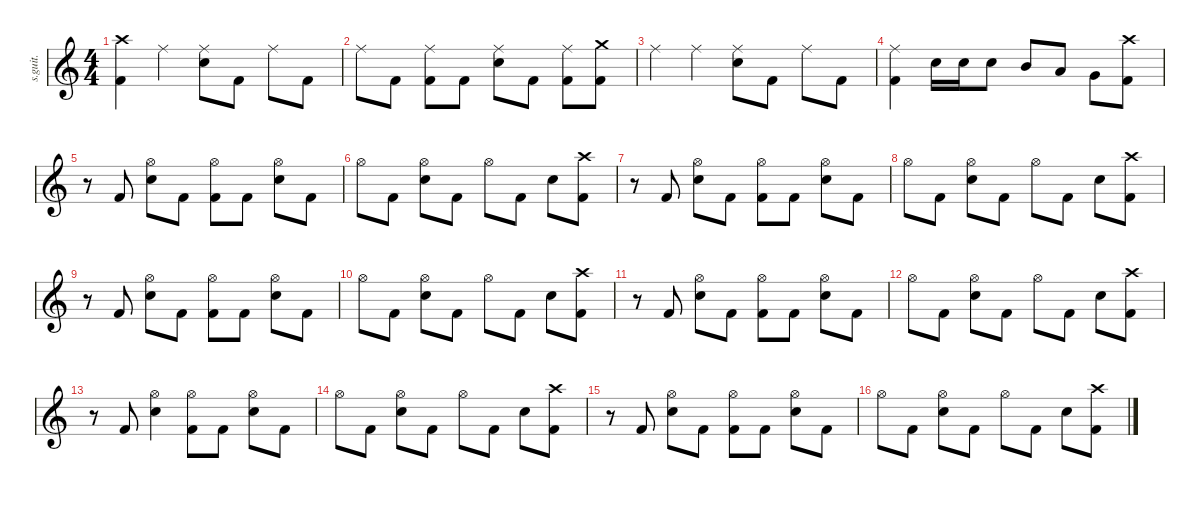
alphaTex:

\defaultSystemsLayout 4
\hideDynamics
\bracketExtendMode nobrackets
\track ("Nick Menza (Drums)" "s.guit.") {instrument percussion}
\staff {score}
\articulation defaults
\ts (4 4)
\tempo (196 hide)
\clef g2
\ks c
("Crash high (hit)" "Kick (hit) 2").4{lyrics (0 "") lyrics (1 "") lyrics (2 "") lyrics (3 "") lyrics (4 "") dy f} "Ride (middle)".4{lyrics (0 "") lyrics (1 "") lyrics (2 "") lyrics (3 "") lyrics (4 "")} ("Ride (middle)" "Snare (hit) 2").8{lyrics (0 "") lyrics (1 "") lyrics (2 "") lyrics (3 "") lyrics (4 "")} "Kick (hit) 2".8{lyrics (0 "") lyrics (1 "") lyrics (2 "") lyrics (3 "") lyrics (4 "") dy fff} "Ride (middle)".8{lyrics (0 "") lyrics (1 "") lyrics (2 "") lyrics (3 "") lyrics (4 "") dy f} "Kick (hit) 2".8{lyrics (0 "") lyrics (1 "") lyrics (2 "") lyrics (3 "") lyrics (4 "") dy fff} |
"Ride (middle)".8{lyrics (0 "") lyrics (1 "") lyrics (2 "") lyrics (3 "") lyrics (4 "") dy f} "Kick (hit) 2".8{lyrics (0 "") lyrics (1 "") lyrics (2 "") lyrics (3 "") lyrics (4 "") dy fff} ("Ride (middle)" "Kick (hit) 2").8{lyrics (0 "") lyrics (1 "") lyrics (2 "") lyrics (3 "") lyrics (4 "") dy f} "Kick (hit) 2".8{lyrics (0 "") lyrics (1 "") lyrics (2 "") lyrics (3 "") lyrics (4 "") dy fff} ("Ride (middle)" "Snare (hit) 2").8{lyrics (0 "") lyrics (1 "") lyrics (2 "") lyrics (3 "") lyrics (4 "") dy f} "Kick (hit) 2".8{lyrics (0 "") lyrics (1 "") lyrics (2 "") lyrics (3 "") lyrics (4 "") dy fff} ("Ride (middle)" "Kick (hit) 2").8{lyrics (0 "") lyrics (1 "") lyrics (2 "") lyrics (3 "") lyrics (4 "") dy f} ("Crash medium (hit)" "Kick (hit) 2").8{lyrics (0 "") lyrics (1 "") lyrics (2 "") lyrics (3 "") lyrics (4 "")} |
"Ride (middle)".4{lyrics (0 "") lyrics (1 "") lyrics (2 "") lyrics (3 "") lyrics (4 "")} "Ride (middle)".4{lyrics (0 "") lyrics (1 "") lyrics (2 "") lyrics (3 "") lyrics (4 "")} ("Ride (middle)" "Snare (hit) 2").8{lyrics (0 "") lyrics (1 "") lyrics (2 "") lyrics (3 "") lyrics (4 "")} "Kick (hit) 2".8{lyrics (0 "") lyrics (1 "") lyrics (2 "") lyrics (3 "") lyrics (4 "") dy fff} "Ride (middle)".8{lyrics (0 "") lyrics (1 "") lyrics (2 "") lyrics (3 "") lyrics (4 "") dy f} "Kick (hit) 2".8{lyrics (0 "") lyrics (1 "") lyrics (2 "") lyrics (3 "") lyrics (4 "") dy fff} |
("Ride (middle)" "Kick (hit) 2").4{lyrics (0 "") lyrics (1 "") lyrics (2 "") lyrics (3 "") lyrics (4 "") dy f} "Snare (hit) 2".16{lyrics (0 "") lyrics (1 "") lyrics (2 "") lyrics (3 "") lyrics (4 "")} "Snare (hit) 2".16{lyrics (0 "") lyrics (1 "") lyrics (2 "") lyrics (3 "") lyrics (4 "")} "Snare (hit) 2".8{lyrics (0 "") lyrics (1 "") lyrics (2 "") lyrics (3 "") lyrics (4 "")} "Mid Tom (hit)".8{lyrics (0 "") lyrics (1 "") lyrics (2 "") lyrics (3 "") lyrics (4 "") dy fff} "Low Tom (hit)".8{lyrics (0 "") lyrics (1 "") lyrics (2 "") lyrics (3 "") lyrics (4 "")} "Very Low Tom (hit)".8{lyrics (0 "") lyrics (1 "") lyrics (2 "") lyrics (3 "") lyrics (4 "") dy f} ("Crash high (hit)" "Kick (hit) 2").8{lyrics (0 "") lyrics (1 "") lyrics (2 "") lyrics (3 "") lyrics (4 "")} |
r.8 "Kick (hit) 2".8{lyrics (0 "") lyrics (1 "") lyrics (2 "") lyrics (3 "") lyrics (4 "") dy fff} ("Hi-Hat (open)" "Snare (hit) 2").8{lyrics (0 "") lyrics (1 "") lyrics (2 "") lyrics (3 "") lyrics (4 "") dy f} "Kick (hit) 2".8{lyrics (0 "") lyrics (1 "") lyrics (2 "") lyrics (3 "") lyrics (4 "") dy fff} ("Hi-Hat (open)" "Kick (hit) 2").8{lyrics (0 "") lyrics (1 "") lyrics (2 "") lyrics (3 "") lyrics (4 "") dy f} "Kick (hit) 2".8{lyrics (0 "") lyrics (1 "") lyrics (2 "") lyrics (3 "") lyrics (4 "") dy fff} ("Hi-Hat (open)" "Snare (hit) 2").8{lyrics (0 "") lyrics (1 "") lyrics (2 "") lyrics (3 "") lyrics (4 "") dy f} "Kick (hit) 2".8{lyrics (0 "") lyrics (1 "") lyrics (2 "") lyrics (3 "") lyrics (4 "") dy fff} |
"Hi-Hat (open)".8{lyrics (0 "") lyrics (1 "") lyrics (2 "") lyrics (3 "") lyrics (4 "") dy f} "Kick (hit) 2".8{lyrics (0 "") lyrics (1 "") lyrics (2 "") lyrics (3 "") lyrics (4 "") dy fff} ("Hi-Hat (open)" "Snare (hit) 2").8{lyrics (0 "") lyrics (1 "") lyrics (2 "") lyrics (3 "") lyrics (4 "") dy f} "Kick (hit) 2".8{lyrics (0 "") lyrics (1 "") lyrics (2 "") lyrics (3 "") lyrics (4 "") dy fff} "Hi-Hat (open)".8{lyrics (0 "") lyrics (1 "") lyrics (2 "") lyrics (3 "") lyrics (4 "") dy f} "Kick (hit) 2".8{lyrics (0 "") lyrics (1 "") lyrics (2 "") lyrics (3 "") lyrics (4 "") dy fff} "Snare (hit) 2".8{lyrics (0 "") lyrics (1 "") lyrics (2 "") lyrics (3 "") lyrics (4 "") dy f} ("Crash high (hit)" "Kick (hit) 2").8{lyrics (0 "") lyrics (1 "") lyrics (2 "") lyrics (3 "") lyrics (4 "")} |
r.8 "Kick (hit) 2".8{lyrics (0 "") lyrics (1 "") lyrics (2 "") lyrics (3 "") lyrics (4 "") dy fff} ("Hi-Hat (open)" "Snare (hit) 2").8{lyrics (0 "") lyrics (1 "") lyrics (2 "") lyrics (3 "") lyrics (4 "") dy f} "Kick (hit) 2".8{lyrics (0 "") lyrics (1 "") lyrics (2 "") lyrics (3 "") lyrics (4 "") dy fff} ("Hi-Hat (open)" "Kick (hit) 2").8{lyrics (0 "") lyrics (1 "") lyrics (2 "") lyrics (3 "") lyrics (4 "") dy f} "Kick (hit) 2".8{lyrics (0 "") lyrics (1 "") lyrics (2 "") lyrics (3 "") lyrics (4 "") dy fff} ("Hi-Hat (open)" "Snare (hit) 2").8{lyrics (0 "") lyrics (1 "") lyrics (2 "") lyrics (3 "") lyrics (4 "") dy f} "Kick (hit) 2".8{lyrics (0 "") lyrics (1 "") lyrics (2 "") lyrics (3 "") lyrics (4 "") dy fff} |
"Hi-Hat (open)".8{lyrics (0 "") lyrics (1 "") lyrics (2 "") lyrics (3 "") lyrics (4 "") dy f} "Kick (hit) 2".8{lyrics (0 "") lyrics (1 "") lyrics (2 "") lyrics (3 "") lyrics (4 "") dy fff} ("Hi-Hat (open)" "Snare (hit) 2").8{lyrics (0 "") lyrics (1 "") lyrics (2 "") lyrics (3 "") lyrics (4 "") dy f} "Kick (hit) 2".8{lyrics (0 "") lyrics (1 "") lyrics (2 "") lyrics (3 "") lyrics (4 "") dy fff} "Hi-Hat (open)".8{lyrics (0 "") lyrics (1 "") lyrics (2 "") lyrics (3 "") lyrics (4 "") dy f} "Kick (hit) 2".8{lyrics (0 "") lyrics (1 "") lyrics (2 "") lyrics (3 "") lyrics (4 "") dy fff} "Snare (hit) 2".8{lyrics (0 "") lyrics (1 "") lyrics (2 "") lyrics (3 "") lyrics (4 "") dy f} ("Crash high (hit)" "Kick (hit) 2").8{lyrics (0 "") lyrics (1 "") lyrics (2 "") lyrics (3 "") lyrics (4 "")} |
r.8 "Kick (hit) 2".8{lyrics (0 "") lyrics (1 "") lyrics (2 "") lyrics (3 "") lyrics (4 "") dy fff} ("Hi-Hat (open)" "Snare (hit) 2").8{lyrics (0 "") lyrics (1 "") lyrics (2 "") lyrics (3 "") lyrics (4 "") dy f} "Kick (hit) 2".8{lyrics (0 "") lyrics (1 "") lyrics (2 "") lyrics (3 "") lyrics (4 "") dy fff} ("Hi-Hat (open)" "Kick (hit) 2").8{lyrics (0 "") lyrics (1 "") lyrics (2 "") lyrics (3 "") lyrics (4 "") dy f} "Kick (hit) 2".8{lyrics (0 "") lyrics (1 "") lyrics (2 "") lyrics (3 "") lyrics (4 "") dy fff} ("Hi-Hat (open)" "Snare (hit) 2").8{lyrics (0 "") lyrics (1 "") lyrics (2 "") lyrics (3 "") lyrics (4 "") dy f} "Kick (hit) 2".8{lyrics (0 "") lyrics (1 "") lyrics (2 "") lyrics (3 "") lyrics (4 "") dy fff} |
"Hi-Hat (open)".8{lyrics (0 "") lyrics (1 "") lyrics (2 "") lyrics (3 "") lyrics (4 "") dy f} "Kick (hit) 2".8{lyrics (0 "") lyrics (1 "") lyrics (2 "") lyrics (3 "") lyrics (4 "") dy fff} ("Hi-Hat (open)" "Snare (hit) 2").8{lyrics (0 "") lyrics (1 "") lyrics (2 "") lyrics (3 "") lyrics (4 "") dy f} "Kick (hit) 2".8{lyrics (0 "") lyrics (1 "") lyrics (2 "") lyrics (3 "") lyrics (4 "") dy fff} "Hi-Hat (open)".8{lyrics (0 "") lyrics (1 "") lyrics (2 "") lyrics (3 "") lyrics (4 "") dy f} "Kick (hit) 2".8{lyrics (0 "") lyrics (1 "") lyrics (2 "") lyrics (3 "") lyrics (4 "") dy fff} "Snare (hit) 2".8{lyrics (0 "") lyrics (1 "") lyrics (2 "") lyrics (3 "") lyrics (4 "") dy f} ("Crash high (hit)" "Kick (hit) 2").8{lyrics (0 "") lyrics (1 "") lyrics (2 "") lyrics (3 "") lyrics (4 "")} |
r.8 "Kick (hit) 2".8{lyrics (0 "") lyrics (1 "") lyrics (2 "") lyrics (3 "") lyrics (4 "") dy fff} ("Hi-Hat (open)" "Snare (hit) 2").8{lyrics (0 "") lyrics (1 "") lyrics (2 "") lyrics (3 "") lyrics (4 "") dy f} "Kick (hit) 2".8{lyrics (0 "") lyrics (1 "") lyrics (2 "") lyrics (3 "") lyrics (4 "") dy fff} ("Hi-Hat (open)" "Kick (hit) 2").8{lyrics (0 "") lyrics (1 "") lyrics (2 "") lyrics (3 "") lyrics (4 "") dy f} "Kick (hit) 2".8{lyrics (0 "") lyrics (1 "") lyrics (2 "") lyrics (3 "") lyrics (4 "") dy fff} ("Hi-Hat (open)" "Snare (hit) 2").8{lyrics (0 "") lyrics (1 "") lyrics (2 "") lyrics (3 "") lyrics (4 "") dy f} "Kick (hit) 2".8{lyrics (0 "") lyrics (1 "") lyrics (2 "") lyrics (3 "") lyrics (4 "") dy fff} |
"Hi-Hat (open)".8{lyrics (0 "") lyrics (1 "") lyrics (2 "") lyrics (3 "") lyrics (4 "") dy f} "Kick (hit) 2".8{lyrics (0 "") lyrics (1 "") lyrics (2 "") lyrics (3 "") lyrics (4 "") dy fff} ("Hi-Hat (open)" "Snare (hit) 2").8{lyrics (0 "") lyrics (1 "") lyrics (2 "") lyrics (3 "") lyrics (4 "") dy f} "Kick (hit) 2".8{lyrics (0 "") lyrics (1 "") lyrics (2 "") lyrics (3 "") lyrics (4 "") dy fff} "Hi-Hat (open)".8{lyrics (0 "") lyrics (1 "") lyrics (2 "") lyrics (3 "") lyrics (4 "") dy f} "Kick (hit) 2".8{lyrics (0 "") lyrics (1 "") lyrics (2 "") lyrics (3 "") lyrics (4 "") dy fff} "Snare (hit) 2".8{lyrics (0 "") lyrics (1 "") lyrics (2 "") lyrics (3 "") lyrics (4 "") dy f} ("Crash high (hit)" "Kick (hit) 2").8{lyrics (0 "") lyrics (1 "") lyrics (2 "") lyrics (3 "") lyrics (4 "")} |
r.8 "Kick (hit) 2".8{lyrics (0 "") lyrics (1 "") lyrics (2 "") lyrics (3 "") lyrics (4 "") dy fff} ("Hi-Hat (open)" "Snare (hit) 2").4{lyrics (0 "") lyrics (1 "") lyrics (2 "") lyrics (3 "") lyrics (4 "") dy f} ("Hi-Hat (open)" "Kick (hit) 2").8{lyrics (0 "") lyrics (1 "") lyrics (2 "") lyrics (3 "") lyrics (4 "")} "Kick (hit) 2".8{lyrics (0 "") lyrics (1 "") lyrics (2 "") lyrics (3 "") lyrics (4 "") dy fff} ("Hi-Hat (open)" "Snare (hit) 2").8{lyrics (0 "") lyrics (1 "") lyrics (2 "") lyrics (3 "") lyrics (4 "") dy f} "Kick (hit) 2".8{lyrics (0 "") lyrics (1 "") lyrics (2 "") lyrics (3 "") lyrics (4 "") dy fff} |
"Hi-Hat (open)".8{lyrics (0 "") lyrics (1 "") lyrics (2 "") lyrics (3 "") lyrics (4 "") dy f} "Kick (hit) 2".8{lyrics (0 "") lyrics (1 "") lyrics (2 "") lyrics (3 "") lyrics (4 "") dy fff} ("Hi-Hat (open)" "Snare (hit) 2").8{lyrics (0 "") lyrics (1 "") lyrics (2 "") lyrics (3 "") lyrics (4 "") dy f} "Kick (hit) 2".8{lyrics (0 "") lyrics (1 "") lyrics (2 "") lyrics (3 "") lyrics (4 "") dy fff} "Hi-Hat (open)".8{lyrics (0 "") lyrics (1 "") lyrics (2 "") lyrics (3 "") lyrics (4 "") dy f} "Kick (hit) 2".8{lyrics (0 "") lyrics (1 "") lyrics (2 "") lyrics (3 "") lyrics (4 "") dy fff} "Snare (hit) 2".8{lyrics (0 "") lyrics (1 "") lyrics (2 "") lyrics (3 "") lyrics (4 "") dy f} ("Crash high (hit)" "Kick (hit) 2").8{lyrics (0 "") lyrics (1 "") lyrics (2 "") lyrics (3 "") lyrics (4 "")} |
r.8 "Kick (hit) 2".8{lyrics (0 "") lyrics (1 "") lyrics (2 "") lyrics (3 "") lyrics (4 "") dy fff} ("Hi-Hat (open)" "Snare (hit) 2").8{lyrics (0 "") lyrics (1 "") lyrics (2 "") lyrics (3 "") lyrics (4 "") dy f} "Kick (hit) 2".8{lyrics (0 "") lyrics (1 "") lyrics (2 "") lyrics (3 "") lyrics (4 "") dy fff} ("Hi-Hat (open)" "Kick (hit) 2").8{lyrics (0 "") lyrics (1 "") lyrics (2 "") lyrics (3 "") lyrics (4 "") dy f} "Kick (hit) 2".8{lyrics (0 "") lyrics (1 "") lyrics (2 "") lyrics (3 "") lyrics (4 "") dy fff} ("Hi-Hat (open)" "Snare (hit) 2").8{lyrics (0 "") lyrics (1 "") lyrics (2 "") lyrics (3 "") lyrics (4 "") dy f} "Kick (hit) 2".8{lyrics (0 "") lyrics (1 "") lyrics (2 "") lyrics (3 "") lyrics (4 "") dy fff} |
"Hi-Hat (open)".8{lyrics (0 "") lyrics (1 "") lyrics (2 "") lyrics (3 "") lyrics (4 "") dy f} "Kick (hit) 2".8{lyrics (0 "") lyrics (1 "") lyrics (2 "") lyrics (3 "") lyrics (4 "") dy fff} ("Hi-Hat (open)" "Snare (hit) 2").8{lyrics (0 "") lyrics (1 "") lyrics (2 "") lyrics (3 "") lyrics (4 "") dy f} "Kick (hit) 2".8{lyrics (0 "") lyrics (1 "") lyrics (2 "") lyrics (3 "") lyrics (4 "") dy fff} "Hi-Hat (open)".8{lyrics (0 "") lyrics (1 "") lyrics (2 "") lyrics (3 "") lyrics (4 "") dy f} "Kick (hit) 2".8{lyrics (0 "") lyrics (1 "") lyrics (2 "") lyrics (3 "") lyrics (4 "") dy fff} "Snare (hit) 2".8{lyrics (0 "") lyrics (1 "") lyrics (2 "") lyrics (3 "") lyrics (4 "") dy f} ("Crash high (hit)" "Kick (hit) 2").8{lyrics (0 "") lyrics (1 "") lyrics (2 "") lyrics (3 "") lyrics (4 "")}
